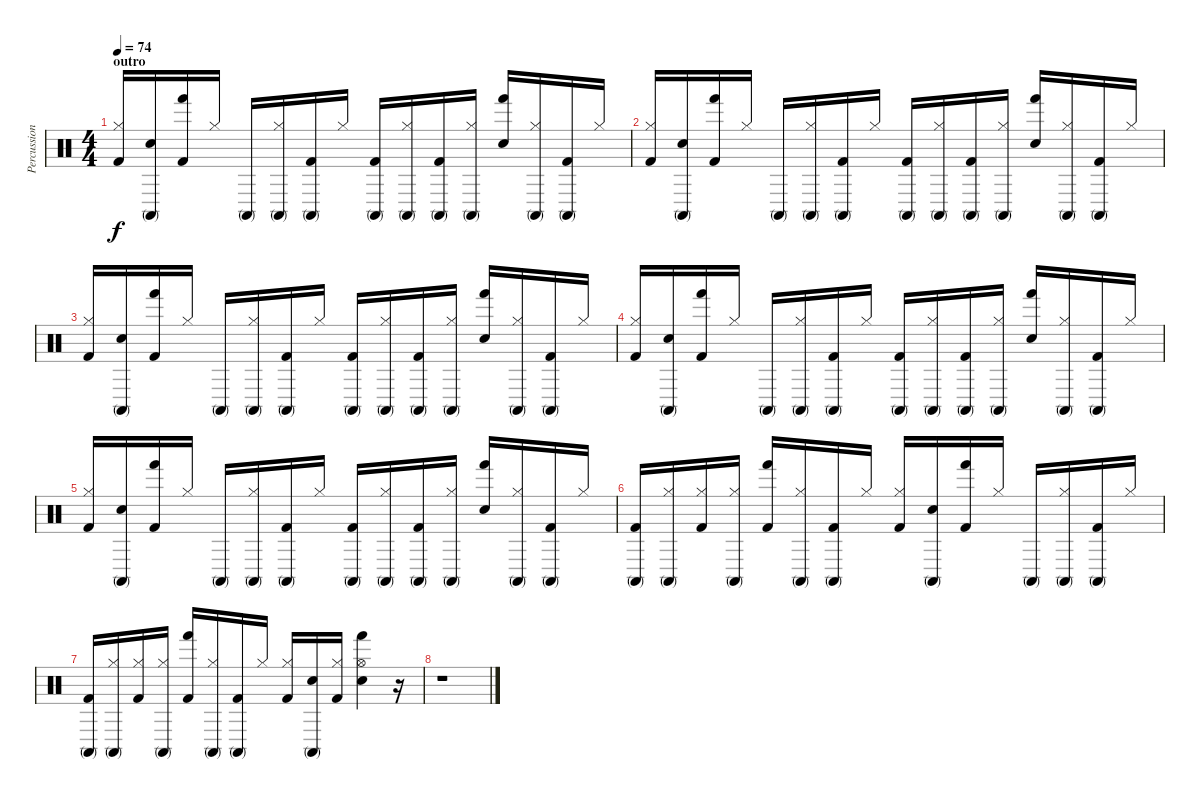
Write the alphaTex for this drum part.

\track ("Percussions" "Percussion") {instrument percussion}
\staff {score}
\articulation defaults
\ts (4 4)
\section ("" "outro")
\tempo 74
\clef neutral
\ks c
("Hi-Hat (closed)" "Kick (hit) 2").16{dy f} ("Conga high (mute)" "Snare (hit) 2").16 ("Hand (hit)" "Kick (hit) 2").16 "Hi-Hat (closed)".16 "Conga high (mute)".16 ("Conga high (mute)" "Hi-Hat (closed)").16 ("Conga high (mute)" "Kick (hit) 2").16 "Hi-Hat (closed)".16 ("Conga high (mute)" "Kick (hit) 2").16 ("Conga high (mute)" "Hi-Hat (closed)").16 ("Conga high (mute)" "Kick (hit) 2").16 ("Conga high (mute)" "Hi-Hat (closed)").16 ("Hand (hit)" "Snare (hit) 2").16 ("Conga high (mute)" "Hi-Hat (closed)").16 ("Conga high (mute)" "Kick (hit) 2").16 "Hi-Hat (closed)".16 |
("Hi-Hat (closed)" "Kick (hit) 2").16 ("Conga high (mute)" "Snare (hit) 2").16 ("Hand (hit)" "Kick (hit) 2").16 "Hi-Hat (closed)".16 "Conga high (mute)".16 ("Conga high (mute)" "Hi-Hat (closed)").16 ("Conga high (mute)" "Kick (hit) 2").16 "Hi-Hat (closed)".16 ("Conga high (mute)" "Kick (hit) 2").16 ("Conga high (mute)" "Hi-Hat (closed)").16 ("Conga high (mute)" "Kick (hit) 2").16 ("Conga high (mute)" "Hi-Hat (closed)").16 ("Hand (hit)" "Snare (hit) 2").16 ("Conga high (mute)" "Hi-Hat (closed)").16 ("Conga high (mute)" "Kick (hit) 2").16 "Hi-Hat (closed)".16 |
("Hi-Hat (closed)" "Kick (hit) 2").16 ("Conga high (mute)" "Snare (hit) 2").16 ("Hand (hit)" "Kick (hit) 2").16 "Hi-Hat (closed)".16 "Conga high (mute)".16 ("Conga high (mute)" "Hi-Hat (closed)").16 ("Conga high (mute)" "Kick (hit) 2").16 "Hi-Hat (closed)".16 ("Conga high (mute)" "Kick (hit) 2").16 ("Conga high (mute)" "Hi-Hat (closed)").16 ("Conga high (mute)" "Kick (hit) 2").16 ("Conga high (mute)" "Hi-Hat (closed)").16 ("Hand (hit)" "Snare (hit) 2").16 ("Conga high (mute)" "Hi-Hat (closed)").16 ("Conga high (mute)" "Kick (hit) 2").16 "Hi-Hat (closed)".16 |
("Hi-Hat (closed)" "Kick (hit) 2").16 ("Conga high (mute)" "Snare (hit) 2").16 ("Hand (hit)" "Kick (hit) 2").16 "Hi-Hat (closed)".16 "Conga high (mute)".16 ("Conga high (mute)" "Hi-Hat (closed)").16 ("Conga high (mute)" "Kick (hit) 2").16 "Hi-Hat (closed)".16 ("Conga high (mute)" "Kick (hit) 2").16 ("Conga high (mute)" "Hi-Hat (closed)").16 ("Conga high (mute)" "Kick (hit) 2").16 ("Conga high (mute)" "Hi-Hat (closed)").16 ("Hand (hit)" "Snare (hit) 2").16 ("Conga high (mute)" "Hi-Hat (closed)").16 ("Conga high (mute)" "Kick (hit) 2").16 "Hi-Hat (closed)".16 |
("Hi-Hat (closed)" "Kick (hit) 2").16 ("Conga high (mute)" "Snare (hit) 2").16 ("Hand (hit)" "Kick (hit) 2").16 "Hi-Hat (closed)".16 "Conga high (mute)".16 ("Conga high (mute)" "Hi-Hat (closed)").16 ("Conga high (mute)" "Kick (hit) 2").16 "Hi-Hat (closed)".16 ("Conga high (mute)" "Kick (hit) 2").16 ("Conga high (mute)" "Hi-Hat (closed)").16 ("Conga high (mute)" "Kick (hit) 2").16 ("Conga high (mute)" "Hi-Hat (closed)").16 ("Hand (hit)" "Snare (hit) 2").16 ("Conga high (mute)" "Hi-Hat (closed)").16 ("Conga high (mute)" "Kick (hit) 2").16 "Hi-Hat (closed)".16 |
("Conga high (mute)" "Kick (hit) 2").16 ("Conga high (mute)" "Hi-Hat (closed)").16 ("Hi-Hat (closed)" "Kick (hit) 2").16 ("Conga high (mute)" "Hi-Hat (closed)").16 ("Hand (hit)" "Kick (hit) 2").16 ("Conga high (mute)" "Hi-Hat (closed)").16 ("Conga high (mute)" "Kick (hit) 2").16 "Hi-Hat (closed)".16 ("Hi-Hat (closed)" "Kick (hit) 2").16 ("Conga high (mute)" "Snare (hit) 2").16 ("Hand (hit)" "Kick (hit) 2").16 "Hi-Hat (closed)".16 "Conga high (mute)".16 ("Conga high (mute)" "Hi-Hat (closed)").16 ("Conga high (mute)" "Kick (hit) 2").16 "Hi-Hat (closed)".16 |
("Conga high (mute)" "Kick (hit) 2").16 ("Conga high (mute)" "Hi-Hat (closed)").16 ("Hi-Hat (closed)" "Kick (hit) 2").16 ("Conga high (mute)" "Hi-Hat (closed)").16 ("Hand (hit)" "Kick (hit) 2").16 ("Conga high (mute)" "Hi-Hat (closed)").16 ("Conga high (mute)" "Kick (hit) 2").16 "Hi-Hat (closed)".16 ("Hi-Hat (closed)" "Kick (hit) 2").16 ("Conga high (mute)" "Snare (hit) 2").16 ("Hi-Hat (closed)" "Kick (hit) 2").16 ("Hand (hit)" "Snare (hit) 2" "Hi-Hat (open)").4 r.16 |
r.1
